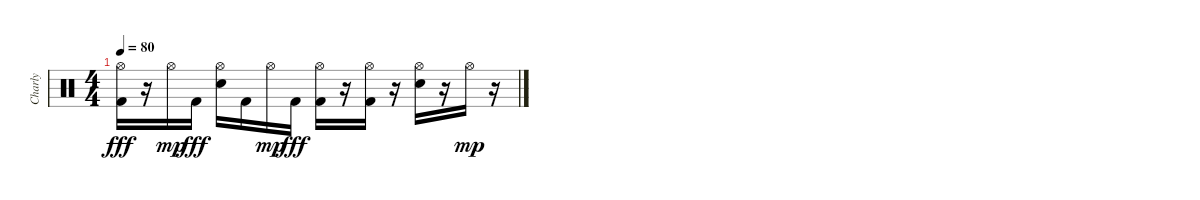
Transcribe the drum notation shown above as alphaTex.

\track ("Charly" "Charly") {instrument percussion}
\staff {score}
\articulation defaults
\ts (4 4)
\tempo 80
\clef neutral
\ks c
("Hi-Hat (open)" "Kick (hit) 2").16{dy fff} r.16 "Hi-Hat (open)".16{dy mp} "Kick (hit) 2".16{dy fff} ("Hi-Hat (open)" "Snare (hit) 2").16 "Kick (hit) 2".16 "Hi-Hat (open)".16{dy mp} "Kick (hit) 2".16{dy fff} ("Hi-Hat (open)" "Kick (hit) 2").16 r.16 ("Hi-Hat (open)" "Kick (hit) 2").16 r.16 ("Hi-Hat (open)" "Snare (hit) 2").16 r.16 "Hi-Hat (open)".16{dy mp} r.16
